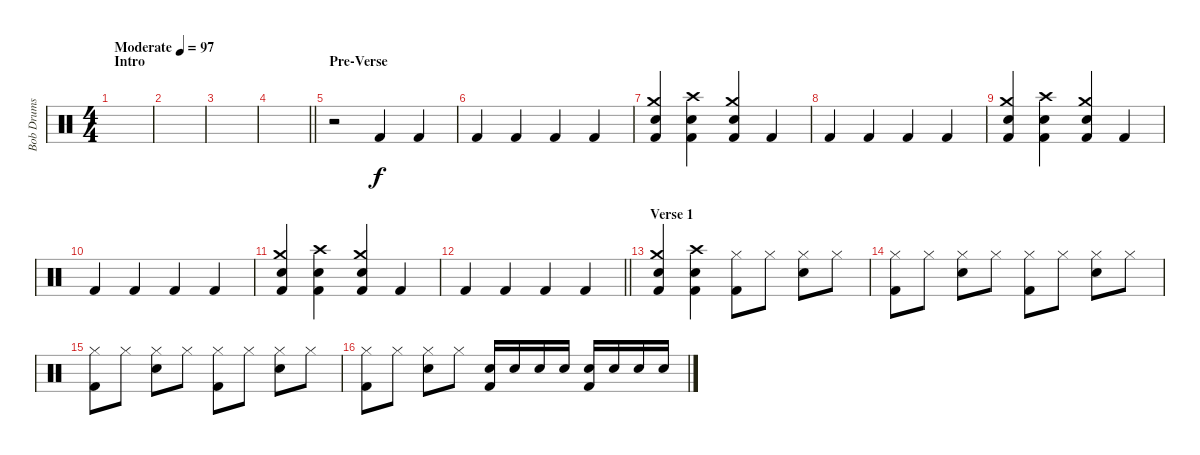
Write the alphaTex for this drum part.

\track ("Bob Drums" "Bob Drums") {instrument percussion}
\staff {score}
\articulation defaults
\ts (4 4)
\section ("" "Intro")
\tempo (97 "Moderate")
\clef neutral
\ks c
|
|
|
\barLineRight lightlight
|
\section ("" "Pre-Verse")
r.2 "Kick (hit) 2".4 "Kick (hit) 2".4 |
"Kick (hit) 2".4 "Kick (hit) 2".4 "Kick (hit) 2".4 "Kick (hit) 2".4 |
("Crash medium (hit)" "Snare (hit) 2" "Kick (hit) 2").4 ("Crash high (hit)" "Snare (hit) 2" "Kick (hit) 2").4 ("Crash medium (hit)" "Snare (hit) 2" "Kick (hit) 2").4 "Kick (hit) 2".4 |
"Kick (hit) 2".4 "Kick (hit) 2".4 "Kick (hit) 2".4 "Kick (hit) 2".4 |
("Crash medium (hit)" "Snare (hit) 2" "Kick (hit) 2").4 ("Crash high (hit)" "Snare (hit) 2" "Kick (hit) 2").4 ("Crash medium (hit)" "Snare (hit) 2" "Kick (hit) 2").4 "Kick (hit) 2".4 |
"Kick (hit) 2".4 "Kick (hit) 2".4 "Kick (hit) 2".4 "Kick (hit) 2".4 |
("Crash medium (hit)" "Snare (hit) 2" "Kick (hit) 2").4 ("Crash high (hit)" "Snare (hit) 2" "Kick (hit) 2").4 ("Crash medium (hit)" "Snare (hit) 2" "Kick (hit) 2").4 "Kick (hit) 2".4 |
\barLineRight lightlight "Kick (hit) 2".4 "Kick (hit) 2".4 "Kick (hit) 2".4 "Kick (hit) 2".4
|
\section ("" "Verse 1")
("Crash medium (hit)" "Snare (hit) 2" "Kick (hit) 2").4 ("Crash high (hit)" "Snare (hit) 2" "Kick (hit) 2").4 ("Hi-Hat (closed)" "Kick (hit) 2").8 "Hi-Hat (closed)".8 ("Hi-Hat (closed)" "Snare (hit) 2").8 "Hi-Hat (closed)".8 |
("Hi-Hat (closed)" "Kick (hit) 2").8 "Hi-Hat (closed)".8 ("Hi-Hat (closed)" "Snare (hit) 2").8 "Hi-Hat (closed)".8 ("Hi-Hat (closed)" "Kick (hit) 2").8 "Hi-Hat (closed)".8 ("Hi-Hat (closed)" "Snare (hit) 2").8 "Hi-Hat (closed)".8 |
("Hi-Hat (closed)" "Kick (hit) 2").8 "Hi-Hat (closed)".8 ("Hi-Hat (closed)" "Snare (hit) 2").8 "Hi-Hat (closed)".8 ("Hi-Hat (closed)" "Kick (hit) 2").8 "Hi-Hat (closed)".8 ("Hi-Hat (closed)" "Snare (hit) 2").8 "Hi-Hat (closed)".8 |
("Hi-Hat (closed)" "Kick (hit) 2").8 "Hi-Hat (closed)".8 ("Hi-Hat (closed)" "Snare (hit) 2").8 "Hi-Hat (closed)".8 ("Snare (hit) 2" "Kick (hit) 2").16 "Snare (hit) 2".16 "Snare (hit) 2".16 "Snare (hit) 2".16 ("Snare (hit) 2" "Kick (hit) 2").16 "Snare (hit) 2".16 "Snare (hit) 2".16 "Snare (hit) 2".16
